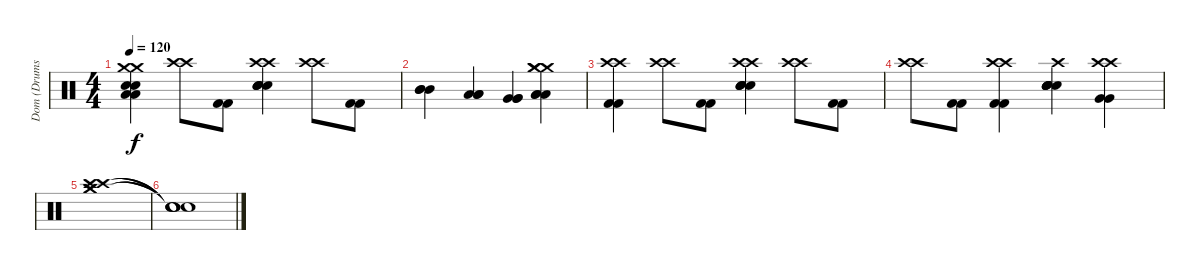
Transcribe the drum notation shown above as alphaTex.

\track ("Dom (Drums)" "Dom (Drums") {instrument percussion}
\staff {score}
\articulation defaults
\ts (4 4)
\tempo 120
\clef neutral
\ks c
("Crash medium (hit)" "Crash medium (hit)" "Snare (hit) 2" "Electric Snare (hit)" "Low Tom (hit)" "Low Tom (hit)").4{dy f} ("Crash high (hit)" "Crash high (hit)").8 ("Kick (hit) 2" "Kick (hit) 2").8 ("Crash high (hit)" "Crash high (hit)" "Snare (hit) 2" "Snare (hit) 2" "Electric Snare (hit)" "Electric Snare (hit)").4 ("Crash high (hit)" "Crash high (hit)").8 ("Kick (hit) 2" "Kick (hit) 2").8 |
("Mid Tom (hit)" "Mid Tom (hit)" "Mid Tom (hit)").4 ("Low Tom (hit)" "Low Tom (hit)" "Low Tom (hit)").4 ("Very Low Tom (hit)" "Very Low Tom (hit)" "Very Low Tom (hit)").4 ("Crash medium (hit)" "Crash medium (hit)" "Crash medium (hit)" "Low Floor Tom (hit)" "Low Floor Tom (hit)" "Low Floor Tom (hit)").4 |
("Crash high (hit)" "Crash high (hit)" "Kick (hit) 2" "Kick (hit) 2").4 ("Crash high (hit)" "Crash high (hit)").8 ("Kick (hit) 2" "Kick (hit) 2").8 ("Crash high (hit)" "Crash high (hit)" "Snare (hit) 2" "Snare (hit) 2" "Electric Snare (hit)" "Electric Snare (hit)").4 ("Crash high (hit)" "Crash high (hit)").8 ("Kick (hit) 2" "Kick (hit) 2").8 |
("Crash high (hit)" "Crash high (hit)").8 ("Kick (hit) 2" "Kick (hit) 2").8 ("Crash high (hit)" "Crash high (hit)" "Kick (hit) 2" "Kick (hit) 2").4 ("Snare (hit)" "Crash high (hit)" "Electric Snare (hit)" "Electric Snare (hit)" "Snare (hit) 2" "Snare (hit) 2").4 ("Crash high (hit)" "Crash high (hit)" "Very Low Tom (hit)" "Very Low Tom (hit)").4 |
("Crash medium (hit)" "Crash medium (hit)" "Crash high (hit)" "Crash high (hit)").1 |
("Snare (hit)"{t} "Snare (hit)"{t} "Snare (hit)"{t} "Snare (hit)"{t}).1
